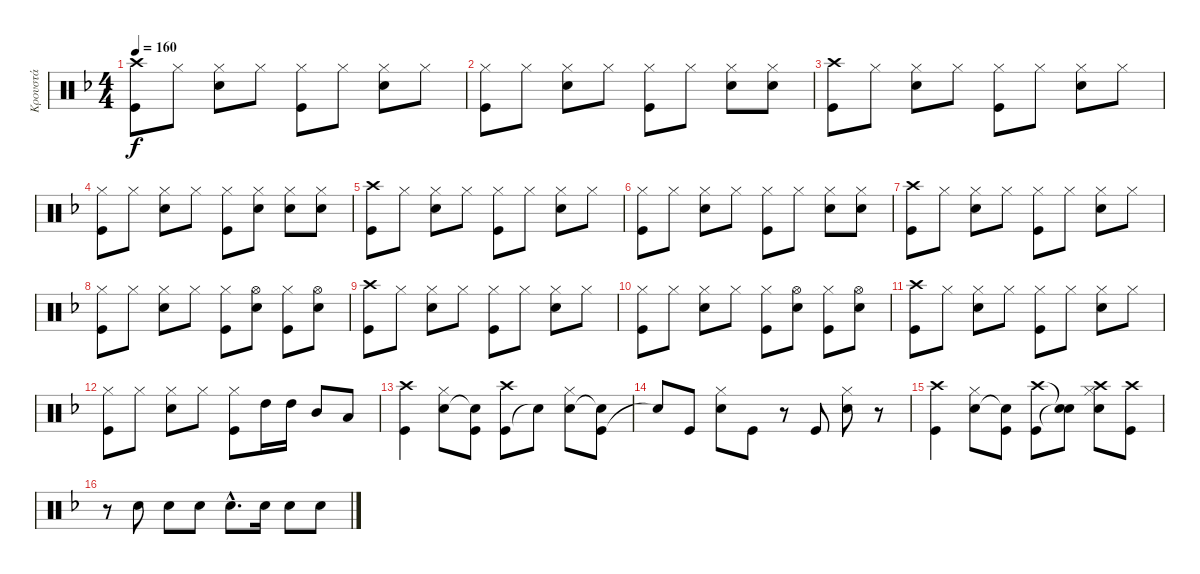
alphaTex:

\track ("Κρουστά" "Κρουστά") {instrument percussion}
\staff {score}
\articulation defaults
\ts (4 4)
\tempo 160
\clef neutral
\ks dminor
("Crash high (hit)" "Kick (hit)").8{dy f} "Hi-Hat (closed)".8 ("Hi-Hat (closed)" "Snare (hit) 2").8 "Hi-Hat (closed)".8 ("Hi-Hat (closed)" "Kick (hit)").8 "Hi-Hat (closed)".8 ("Hi-Hat (closed)" "Snare (hit) 2").8 "Hi-Hat (closed)".8 |
("Hi-Hat (closed)" "Kick (hit)").8 "Hi-Hat (closed)".8 ("Hi-Hat (closed)" "Snare (hit) 2").8 "Hi-Hat (closed)".8 ("Hi-Hat (closed)" "Kick (hit)").8 "Hi-Hat (closed)".8 ("Hi-Hat (closed)" "Snare (hit) 2").8 ("Hi-Hat (closed)" "Snare (hit) 2").8 |
("Crash high (hit)" "Kick (hit)").8 "Hi-Hat (closed)".8 ("Hi-Hat (closed)" "Snare (hit) 2").8 "Hi-Hat (closed)".8 ("Hi-Hat (closed)" "Kick (hit)").8 "Hi-Hat (closed)".8 ("Hi-Hat (closed)" "Snare (hit) 2").8 "Hi-Hat (closed)".8 |
("Hi-Hat (closed)" "Kick (hit)").8 "Hi-Hat (closed)".8 ("Hi-Hat (closed)" "Snare (hit) 2").8 "Hi-Hat (closed)".8 ("Hi-Hat (closed)" "Kick (hit)").8 ("Hi-Hat (closed)" "Snare (hit) 2").8 ("Hi-Hat (closed)" "Snare (hit) 2").8 ("Hi-Hat (closed)" "Snare (hit) 2").8 |
("Crash high (hit)" "Kick (hit)").8 "Hi-Hat (closed)".8 ("Hi-Hat (closed)" "Snare (hit) 2").8 "Hi-Hat (closed)".8 ("Hi-Hat (closed)" "Kick (hit)").8 "Hi-Hat (closed)".8 ("Hi-Hat (closed)" "Snare (hit) 2").8 "Hi-Hat (closed)".8 |
("Hi-Hat (closed)" "Kick (hit)").8 "Hi-Hat (closed)".8 ("Hi-Hat (closed)" "Snare (hit) 2").8 "Hi-Hat (closed)".8 ("Hi-Hat (closed)" "Kick (hit)").8 "Hi-Hat (closed)".8 ("Hi-Hat (closed)" "Snare (hit) 2").8 ("Hi-Hat (closed)" "Snare (hit) 2").8 |
("Crash high (hit)" "Kick (hit)").8 "Hi-Hat (closed)".8 ("Hi-Hat (closed)" "Snare (hit) 2").8 "Hi-Hat (closed)".8 ("Hi-Hat (closed)" "Kick (hit)").8 "Hi-Hat (closed)".8 ("Hi-Hat (closed)" "Snare (hit) 2").8 "Hi-Hat (closed)".8 |
("Hi-Hat (closed)" "Kick (hit)").8 "Hi-Hat (closed)".8 ("Hi-Hat (closed)" "Snare (hit) 2").8 "Hi-Hat (closed)".8 ("Hi-Hat (closed)" "Kick (hit)").8 ("Hi-Hat (open)" "Snare (hit) 2").8 ("Hi-Hat (closed)" "Kick (hit)").8 ("Hi-Hat (open)" "Snare (hit) 2").8 |
("Crash high (hit)" "Kick (hit)").8 "Hi-Hat (closed)".8 ("Hi-Hat (closed)" "Snare (hit) 2").8 "Hi-Hat (closed)".8 ("Hi-Hat (closed)" "Kick (hit)").8 "Hi-Hat (closed)".8 ("Hi-Hat (closed)" "Snare (hit) 2").8 "Hi-Hat (closed)".8 |
("Hi-Hat (closed)" "Kick (hit)").8 "Hi-Hat (closed)".8 ("Hi-Hat (closed)" "Snare (hit) 2").8 "Hi-Hat (closed)".8 ("Hi-Hat (closed)" "Kick (hit)").8 ("Hi-Hat (open)" "Snare (hit) 2").8 ("Hi-Hat (closed)" "Kick (hit)").8 ("Hi-Hat (open)" "Snare (hit) 2").8 |
("Crash high (hit)" "Kick (hit)").8 "Hi-Hat (closed)".8 ("Hi-Hat (closed)" "Snare (hit) 2").8 "Hi-Hat (closed)".8 ("Hi-Hat (closed)" "Kick (hit)").8 "Hi-Hat (closed)".8 ("Hi-Hat (closed)" "Snare (hit) 2").8 "Hi-Hat (closed)".8 |
("Hi-Hat (closed)" "Kick (hit)").8 "Hi-Hat (closed)".8 ("Hi-Hat (closed)" "Snare (hit) 2").8 "Hi-Hat (closed)".8 ("Hi-Hat (closed)" "Kick (hit)").8 "High Tom (hit)".16 "High Tom (hit)".16 "Mid Tom (hit)".8 "Low Tom (hit)".8 |
("Kick (hit)" "Crash high (hit)").4 ("Hi-Hat (closed)" "Snare (hit) 2").8 ("Kick (hit)" "Snare (hit)"{t}).8 ("Kick (hit)" "Crash high (hit)").8 "Snare (hit)"{t}.8 ("Hi-Hat (closed)" "Snare (hit) 2").8 ("Kick (hit)" "Snare (hit)"{t}).8 |
"Snare (hit)"{t}.8 "Kick (hit)".8 ("Hi-Hat (closed)" "Snare (hit) 2").8 "Kick (hit)".8 r.8 "Kick (hit)".8 ("Hi-Hat (closed)" "Snare (hit) 2").8 r.8 |
("Kick (hit)" "Crash high (hit)").4 ("Hi-Hat (closed)" "Snare (hit) 2").8 ("Kick (hit)" "Snare (hit)"{t}).8 ("Kick (hit)" "Crash high (hit)").8 ("Snare (hit)"{t} "Snare (hit)"{t}).8 ("Hi-Hat (closed)" "Snare (hit) 2" "Crash high (hit)").8 ("Kick (hit)" "Crash high (hit)").8 |
r.8 "Snare (hit) 2".8 "Snare (hit) 2".8 "Snare (hit) 2".8 "Snare (hit) 2"{hac}.8{d} "Snare (hit) 2".16 "Snare (hit) 2".8 "Snare (hit) 2".8
